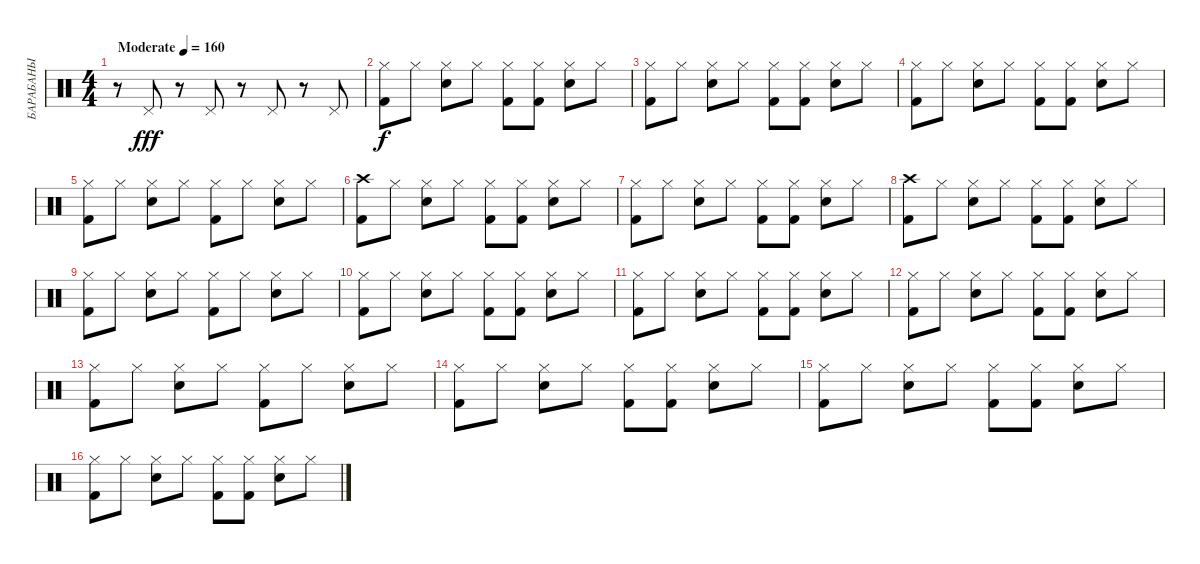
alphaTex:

\track ("БАРАБАНЫ" "БАРАБАНЫ") {instrument percussion}
\staff {score}
\articulation defaults
\ts (4 4)
\tempo (160 "Moderate")
\clef neutral
\ks c
r.8{dy fff} "Pedal Hi-Hat (hit)".8 r.8 "Pedal Hi-Hat (hit)".8 r.8 "Pedal Hi-Hat (hit)".8 r.8 "Pedal Hi-Hat (hit)".8 |
("Hi-Hat (closed)" "Kick (hit) 2").8{dy f} "Hi-Hat (closed)".8 ("Hi-Hat (closed)" "Electric Snare (hit)").8 "Hi-Hat (closed)".8 ("Hi-Hat (closed)" "Kick (hit) 2").8 ("Hi-Hat (closed)" "Kick (hit) 2").8 ("Hi-Hat (closed)" "Electric Snare (hit)").8 "Hi-Hat (closed)".8 |
("Hi-Hat (closed)" "Kick (hit) 2").8 "Hi-Hat (closed)".8 ("Hi-Hat (closed)" "Electric Snare (hit)").8 "Hi-Hat (closed)".8 ("Hi-Hat (closed)" "Kick (hit) 2").8 ("Hi-Hat (closed)" "Kick (hit) 2").8 ("Hi-Hat (closed)" "Electric Snare (hit)").8 "Hi-Hat (closed)".8 |
("Hi-Hat (closed)" "Kick (hit) 2").8 "Hi-Hat (closed)".8 ("Hi-Hat (closed)" "Electric Snare (hit)").8 "Hi-Hat (closed)".8 ("Hi-Hat (closed)" "Kick (hit) 2").8 ("Hi-Hat (closed)" "Kick (hit) 2").8 ("Hi-Hat (closed)" "Electric Snare (hit)").8 "Hi-Hat (closed)".8 |
("Hi-Hat (closed)" "Kick (hit) 2").8 "Hi-Hat (closed)".8 ("Hi-Hat (closed)" "Electric Snare (hit)").8 "Hi-Hat (closed)".8 ("Hi-Hat (closed)" "Kick (hit) 2").8 "Hi-Hat (closed)".8 ("Hi-Hat (closed)" "Electric Snare (hit)").8 "Hi-Hat (closed)".8 |
("Crash high (hit)" "Kick (hit) 2").8 "Hi-Hat (closed)".8 ("Hi-Hat (closed)" "Electric Snare (hit)").8 "Hi-Hat (closed)".8 ("Hi-Hat (closed)" "Kick (hit) 2").8 ("Hi-Hat (closed)" "Kick (hit) 2").8 ("Hi-Hat (closed)" "Electric Snare (hit)").8 "Hi-Hat (closed)".8 |
("Hi-Hat (closed)" "Kick (hit) 2").8 "Hi-Hat (closed)".8 ("Hi-Hat (closed)" "Electric Snare (hit)").8 "Hi-Hat (closed)".8 ("Hi-Hat (closed)" "Kick (hit) 2").8 ("Hi-Hat (closed)" "Kick (hit) 2").8 ("Hi-Hat (closed)" "Electric Snare (hit)").8 "Hi-Hat (closed)".8 |
("Crash high (hit)" "Kick (hit) 2").8 "Hi-Hat (closed)".8 ("Hi-Hat (closed)" "Electric Snare (hit)").8 "Hi-Hat (closed)".8 ("Hi-Hat (closed)" "Kick (hit) 2").8 ("Hi-Hat (closed)" "Kick (hit) 2").8 ("Hi-Hat (closed)" "Electric Snare (hit)").8 "Hi-Hat (closed)".8 |
("Hi-Hat (closed)" "Kick (hit) 2").8 "Hi-Hat (closed)".8 ("Hi-Hat (closed)" "Electric Snare (hit)").8 "Hi-Hat (closed)".8 ("Hi-Hat (closed)" "Kick (hit) 2").8 "Hi-Hat (closed)".8 ("Hi-Hat (closed)" "Electric Snare (hit)").8 "Hi-Hat (closed)".8 |
("Hi-Hat (closed)" "Kick (hit) 2").8 "Hi-Hat (closed)".8 ("Hi-Hat (closed)" "Electric Snare (hit)").8 "Hi-Hat (closed)".8 ("Hi-Hat (closed)" "Kick (hit) 2").8 ("Hi-Hat (closed)" "Kick (hit) 2").8 ("Hi-Hat (closed)" "Electric Snare (hit)").8 "Hi-Hat (closed)".8 |
("Hi-Hat (closed)" "Kick (hit) 2").8 "Hi-Hat (closed)".8 ("Hi-Hat (closed)" "Electric Snare (hit)").8 "Hi-Hat (closed)".8 ("Hi-Hat (closed)" "Kick (hit) 2").8 ("Hi-Hat (closed)" "Kick (hit) 2").8 ("Hi-Hat (closed)" "Electric Snare (hit)").8 "Hi-Hat (closed)".8 |
("Hi-Hat (closed)" "Kick (hit) 2").8 "Hi-Hat (closed)".8 ("Hi-Hat (closed)" "Electric Snare (hit)").8 "Hi-Hat (closed)".8 ("Hi-Hat (closed)" "Kick (hit) 2").8 ("Hi-Hat (closed)" "Kick (hit) 2").8 ("Hi-Hat (closed)" "Electric Snare (hit)").8 "Hi-Hat (closed)".8 |
("Hi-Hat (closed)" "Kick (hit) 2").8 "Hi-Hat (closed)".8 ("Hi-Hat (closed)" "Electric Snare (hit)").8 "Hi-Hat (closed)".8 ("Hi-Hat (closed)" "Kick (hit) 2").8 "Hi-Hat (closed)".8 ("Hi-Hat (closed)" "Electric Snare (hit)").8 "Hi-Hat (closed)".8 |
("Hi-Hat (closed)" "Kick (hit) 2").8 "Hi-Hat (closed)".8 ("Hi-Hat (closed)" "Electric Snare (hit)").8 "Hi-Hat (closed)".8 ("Hi-Hat (closed)" "Kick (hit) 2").8 ("Hi-Hat (closed)" "Kick (hit) 2").8 ("Hi-Hat (closed)" "Electric Snare (hit)").8 "Hi-Hat (closed)".8 |
("Hi-Hat (closed)" "Kick (hit) 2").8 "Hi-Hat (closed)".8 ("Hi-Hat (closed)" "Electric Snare (hit)").8 "Hi-Hat (closed)".8 ("Hi-Hat (closed)" "Kick (hit) 2").8 ("Hi-Hat (closed)" "Kick (hit) 2").8 ("Hi-Hat (closed)" "Electric Snare (hit)").8 "Hi-Hat (closed)".8 |
("Hi-Hat (closed)" "Kick (hit) 2").8 "Hi-Hat (closed)".8 ("Hi-Hat (closed)" "Electric Snare (hit)").8 "Hi-Hat (closed)".8 ("Hi-Hat (closed)" "Kick (hit) 2").8 ("Hi-Hat (closed)" "Kick (hit) 2").8 ("Hi-Hat (closed)" "Electric Snare (hit)").8 "Hi-Hat (closed)".8
